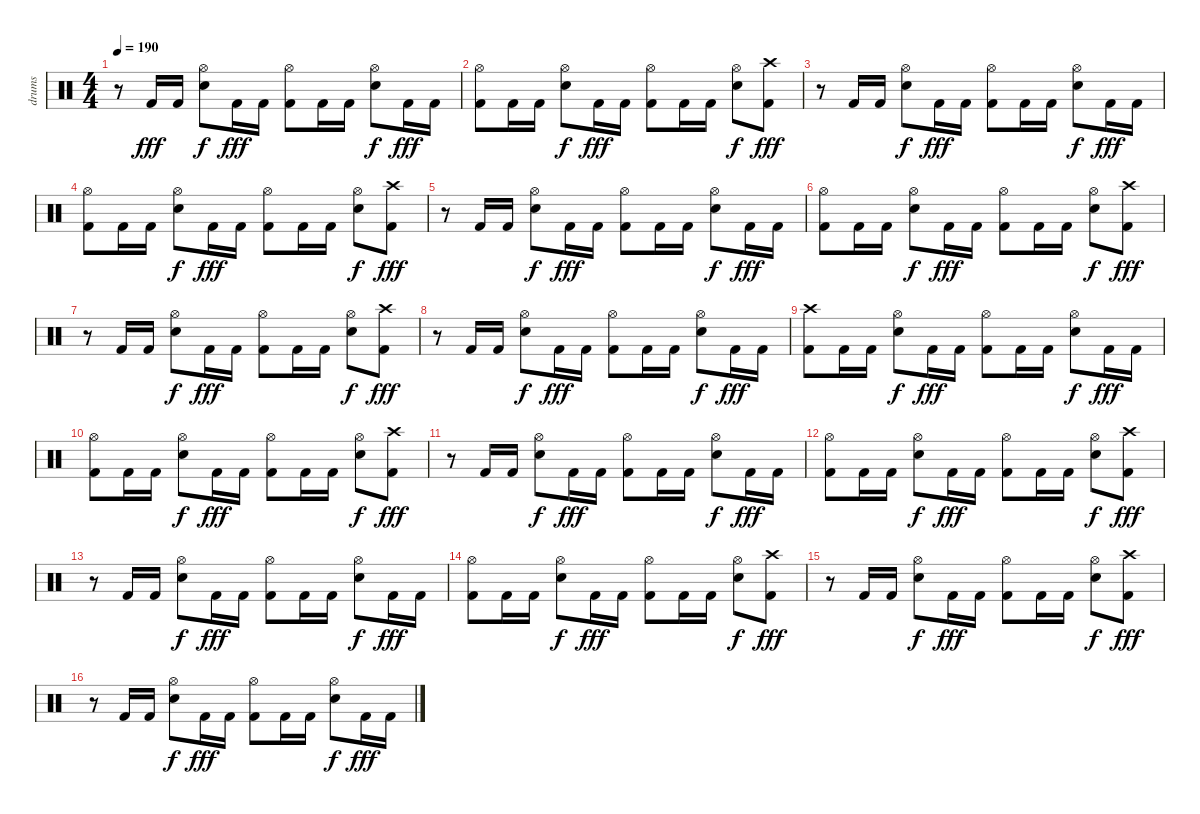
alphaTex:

\track ("drums" "drums") {instrument percussion}
\staff {score}
\articulation defaults
\ts (4 4)
\tempo 190
\clef neutral
\ks c
r.8{dy fff} "Kick (hit) 2".16 "Kick (hit) 2".16 ("Hi-Hat (open)" "Snare (hit) 2").8{dy f} "Kick (hit) 2".16{dy fff} "Kick (hit) 2".16 ("Hi-Hat (open)" "Kick (hit) 2").8 "Kick (hit) 2".16 "Kick (hit) 2".16 ("Hi-Hat (open)" "Snare (hit) 2").8{dy f} "Kick (hit) 2".16{dy fff} "Kick (hit) 2".16 |
("Hi-Hat (open)" "Kick (hit) 2").8 "Kick (hit) 2".16 "Kick (hit) 2".16 ("Hi-Hat (open)" "Snare (hit) 2").8{dy f} "Kick (hit) 2".16{dy fff} "Kick (hit) 2".16 ("Hi-Hat (open)" "Kick (hit) 2").8 "Kick (hit) 2".16 "Kick (hit) 2".16 ("Hi-Hat (open)" "Snare (hit) 2").8{dy f} ("Crash high (hit)" "Kick (hit) 2").8{dy fff} |
r.8 "Kick (hit) 2".16 "Kick (hit) 2".16 ("Hi-Hat (open)" "Snare (hit) 2").8{dy f} "Kick (hit) 2".16{dy fff} "Kick (hit) 2".16 ("Hi-Hat (open)" "Kick (hit) 2").8 "Kick (hit) 2".16 "Kick (hit) 2".16 ("Hi-Hat (open)" "Snare (hit) 2").8{dy f} "Kick (hit) 2".16{dy fff} "Kick (hit) 2".16 |
("Hi-Hat (open)" "Kick (hit) 2").8 "Kick (hit) 2".16 "Kick (hit) 2".16 ("Hi-Hat (open)" "Snare (hit) 2").8{dy f} "Kick (hit) 2".16{dy fff} "Kick (hit) 2".16 ("Hi-Hat (open)" "Kick (hit) 2").8 "Kick (hit) 2".16 "Kick (hit) 2".16 ("Hi-Hat (open)" "Snare (hit) 2").8{dy f} ("Crash high (hit)" "Kick (hit) 2").8{dy fff} |
r.8 "Kick (hit) 2".16 "Kick (hit) 2".16 ("Hi-Hat (open)" "Snare (hit) 2").8{dy f} "Kick (hit) 2".16{dy fff} "Kick (hit) 2".16 ("Hi-Hat (open)" "Kick (hit) 2").8 "Kick (hit) 2".16 "Kick (hit) 2".16 ("Hi-Hat (open)" "Snare (hit) 2").8{dy f} "Kick (hit) 2".16{dy fff} "Kick (hit) 2".16 |
("Hi-Hat (open)" "Kick (hit) 2").8 "Kick (hit) 2".16 "Kick (hit) 2".16 ("Hi-Hat (open)" "Snare (hit) 2").8{dy f} "Kick (hit) 2".16{dy fff} "Kick (hit) 2".16 ("Hi-Hat (open)" "Kick (hit) 2").8 "Kick (hit) 2".16 "Kick (hit) 2".16 ("Hi-Hat (open)" "Snare (hit) 2").8{dy f} ("Crash high (hit)" "Kick (hit) 2").8{dy fff} |
r.8 "Kick (hit) 2".16 "Kick (hit) 2".16 ("Hi-Hat (open)" "Snare (hit) 2").8{dy f} "Kick (hit) 2".16{dy fff} "Kick (hit) 2".16 ("Hi-Hat (open)" "Kick (hit) 2").8 "Kick (hit) 2".16 "Kick (hit) 2".16 ("Hi-Hat (open)" "Snare (hit) 2").8{dy f} ("Crash high (hit)" "Kick (hit) 2").8{dy fff} |
r.8 "Kick (hit) 2".16 "Kick (hit) 2".16 ("Hi-Hat (open)" "Snare (hit) 2").8{dy f} "Kick (hit) 2".16{dy fff} "Kick (hit) 2".16 ("Hi-Hat (open)" "Kick (hit) 2").8 "Kick (hit) 2".16 "Kick (hit) 2".16 ("Hi-Hat (open)" "Snare (hit) 2").8{dy f} "Kick (hit) 2".16{dy fff} "Kick (hit) 2".16 |
("Crash high (hit)" "Kick (hit) 2").8 "Kick (hit) 2".16 "Kick (hit) 2".16 ("Hi-Hat (open)" "Snare (hit) 2").8{dy f} "Kick (hit) 2".16{dy fff} "Kick (hit) 2".16 ("Hi-Hat (open)" "Kick (hit) 2").8 "Kick (hit) 2".16 "Kick (hit) 2".16 ("Hi-Hat (open)" "Snare (hit) 2").8{dy f} "Kick (hit) 2".16{dy fff} "Kick (hit) 2".16 |
("Hi-Hat (open)" "Kick (hit) 2").8 "Kick (hit) 2".16 "Kick (hit) 2".16 ("Hi-Hat (open)" "Snare (hit) 2").8{dy f} "Kick (hit) 2".16{dy fff} "Kick (hit) 2".16 ("Hi-Hat (open)" "Kick (hit) 2").8 "Kick (hit) 2".16 "Kick (hit) 2".16 ("Hi-Hat (open)" "Snare (hit) 2").8{dy f} ("Crash high (hit)" "Kick (hit) 2").8{dy fff} |
r.8 "Kick (hit) 2".16 "Kick (hit) 2".16 ("Hi-Hat (open)" "Snare (hit) 2").8{dy f} "Kick (hit) 2".16{dy fff} "Kick (hit) 2".16 ("Hi-Hat (open)" "Kick (hit) 2").8 "Kick (hit) 2".16 "Kick (hit) 2".16 ("Hi-Hat (open)" "Snare (hit) 2").8{dy f} "Kick (hit) 2".16{dy fff} "Kick (hit) 2".16 |
("Hi-Hat (open)" "Kick (hit) 2").8 "Kick (hit) 2".16 "Kick (hit) 2".16 ("Hi-Hat (open)" "Snare (hit) 2").8{dy f} "Kick (hit) 2".16{dy fff} "Kick (hit) 2".16 ("Hi-Hat (open)" "Kick (hit) 2").8 "Kick (hit) 2".16 "Kick (hit) 2".16 ("Hi-Hat (open)" "Snare (hit) 2").8{dy f} ("Crash high (hit)" "Kick (hit) 2").8{dy fff} |
r.8 "Kick (hit) 2".16 "Kick (hit) 2".16 ("Hi-Hat (open)" "Snare (hit) 2").8{dy f} "Kick (hit) 2".16{dy fff} "Kick (hit) 2".16 ("Hi-Hat (open)" "Kick (hit) 2").8 "Kick (hit) 2".16 "Kick (hit) 2".16 ("Hi-Hat (open)" "Snare (hit) 2").8{dy f} "Kick (hit) 2".16{dy fff} "Kick (hit) 2".16 |
("Hi-Hat (open)" "Kick (hit) 2").8 "Kick (hit) 2".16 "Kick (hit) 2".16 ("Hi-Hat (open)" "Snare (hit) 2").8{dy f} "Kick (hit) 2".16{dy fff} "Kick (hit) 2".16 ("Hi-Hat (open)" "Kick (hit) 2").8 "Kick (hit) 2".16 "Kick (hit) 2".16 ("Hi-Hat (open)" "Snare (hit) 2").8{dy f} ("Crash high (hit)" "Kick (hit) 2").8{dy fff} |
r.8 "Kick (hit) 2".16 "Kick (hit) 2".16 ("Hi-Hat (open)" "Snare (hit) 2").8{dy f} "Kick (hit) 2".16{dy fff} "Kick (hit) 2".16 ("Hi-Hat (open)" "Kick (hit) 2").8 "Kick (hit) 2".16 "Kick (hit) 2".16 ("Hi-Hat (open)" "Snare (hit) 2").8{dy f} ("Crash high (hit)" "Kick (hit) 2").8{dy fff} |
r.8 "Kick (hit) 2".16 "Kick (hit) 2".16 ("Hi-Hat (open)" "Snare (hit) 2").8{dy f} "Kick (hit) 2".16{dy fff} "Kick (hit) 2".16 ("Hi-Hat (open)" "Kick (hit) 2").8 "Kick (hit) 2".16 "Kick (hit) 2".16 ("Hi-Hat (open)" "Snare (hit) 2").8{dy f} "Kick (hit) 2".16{dy fff} "Kick (hit) 2".16
